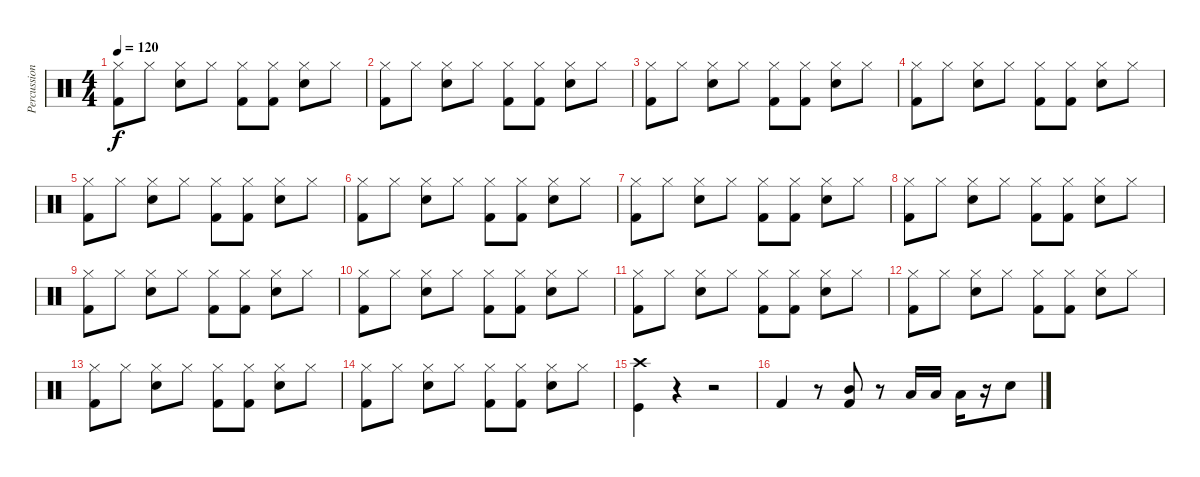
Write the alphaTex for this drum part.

\track ("Percussion" "Percussion") {instrument percussion}
\staff {score}
\articulation defaults
\ts (4 4)
\tempo 120
\clef neutral
\ks c
("Hi-Hat (closed)" "Kick (hit) 2").8{dy f} "Hi-Hat (closed)".8 ("Hi-Hat (closed)" "Electric Snare (hit)").8 "Hi-Hat (closed)".8 ("Hi-Hat (closed)" "Kick (hit) 2").8 ("Hi-Hat (closed)" "Kick (hit) 2").8 ("Hi-Hat (closed)" "Electric Snare (hit)").8 "Hi-Hat (closed)".8 |
("Hi-Hat (closed)" "Kick (hit) 2").8 "Hi-Hat (closed)".8 ("Hi-Hat (closed)" "Electric Snare (hit)").8 "Hi-Hat (closed)".8 ("Hi-Hat (closed)" "Kick (hit) 2").8 ("Hi-Hat (closed)" "Kick (hit) 2").8 ("Hi-Hat (closed)" "Electric Snare (hit)").8 "Hi-Hat (closed)".8 |
("Hi-Hat (closed)" "Kick (hit) 2").8 "Hi-Hat (closed)".8 ("Hi-Hat (closed)" "Electric Snare (hit)").8 "Hi-Hat (closed)".8 ("Hi-Hat (closed)" "Kick (hit) 2").8 ("Hi-Hat (closed)" "Kick (hit) 2").8 ("Hi-Hat (closed)" "Electric Snare (hit)").8 "Hi-Hat (closed)".8 |
("Hi-Hat (closed)" "Kick (hit) 2").8 "Hi-Hat (closed)".8 ("Hi-Hat (closed)" "Electric Snare (hit)").8 "Hi-Hat (closed)".8 ("Hi-Hat (closed)" "Kick (hit) 2").8 ("Hi-Hat (closed)" "Kick (hit) 2").8 ("Hi-Hat (closed)" "Electric Snare (hit)").8 "Hi-Hat (closed)".8 |
("Hi-Hat (closed)" "Kick (hit) 2").8 "Hi-Hat (closed)".8 ("Hi-Hat (closed)" "Electric Snare (hit)").8 "Hi-Hat (closed)".8 ("Hi-Hat (closed)" "Kick (hit) 2").8 ("Hi-Hat (closed)" "Kick (hit) 2").8 ("Hi-Hat (closed)" "Electric Snare (hit)").8 "Hi-Hat (closed)".8 |
("Hi-Hat (closed)" "Kick (hit) 2").8 "Hi-Hat (closed)".8 ("Hi-Hat (closed)" "Electric Snare (hit)").8 "Hi-Hat (closed)".8 ("Hi-Hat (closed)" "Kick (hit) 2").8 ("Hi-Hat (closed)" "Kick (hit) 2").8 ("Hi-Hat (closed)" "Electric Snare (hit)").8 "Hi-Hat (closed)".8 |
("Hi-Hat (closed)" "Kick (hit) 2").8 "Hi-Hat (closed)".8 ("Hi-Hat (closed)" "Electric Snare (hit)").8 "Hi-Hat (closed)".8 ("Hi-Hat (closed)" "Kick (hit) 2").8 ("Hi-Hat (closed)" "Kick (hit) 2").8 ("Hi-Hat (closed)" "Electric Snare (hit)").8 "Hi-Hat (closed)".8 |
("Hi-Hat (closed)" "Kick (hit) 2").8 "Hi-Hat (closed)".8 ("Hi-Hat (closed)" "Electric Snare (hit)").8 "Hi-Hat (closed)".8 ("Hi-Hat (closed)" "Kick (hit) 2").8 ("Hi-Hat (closed)" "Kick (hit) 2").8 ("Hi-Hat (closed)" "Electric Snare (hit)").8 "Hi-Hat (closed)".8 |
("Hi-Hat (closed)" "Kick (hit) 2").8 "Hi-Hat (closed)".8 ("Hi-Hat (closed)" "Electric Snare (hit)").8 "Hi-Hat (closed)".8 ("Hi-Hat (closed)" "Kick (hit) 2").8 ("Hi-Hat (closed)" "Kick (hit) 2").8 ("Hi-Hat (closed)" "Electric Snare (hit)").8 "Hi-Hat (closed)".8 |
("Hi-Hat (closed)" "Kick (hit) 2").8 "Hi-Hat (closed)".8 ("Hi-Hat (closed)" "Electric Snare (hit)").8 "Hi-Hat (closed)".8 ("Hi-Hat (closed)" "Kick (hit) 2").8 ("Hi-Hat (closed)" "Kick (hit) 2").8 ("Hi-Hat (closed)" "Electric Snare (hit)").8 "Hi-Hat (closed)".8 |
("Hi-Hat (closed)" "Kick (hit) 2").8 "Hi-Hat (closed)".8 ("Hi-Hat (closed)" "Electric Snare (hit)").8 "Hi-Hat (closed)".8 ("Hi-Hat (closed)" "Kick (hit) 2").8 ("Hi-Hat (closed)" "Kick (hit) 2").8 ("Hi-Hat (closed)" "Electric Snare (hit)").8 "Hi-Hat (closed)".8 |
("Hi-Hat (closed)" "Kick (hit) 2").8 "Hi-Hat (closed)".8 ("Hi-Hat (closed)" "Electric Snare (hit)").8 "Hi-Hat (closed)".8 ("Hi-Hat (closed)" "Kick (hit) 2").8 ("Hi-Hat (closed)" "Kick (hit) 2").8 ("Hi-Hat (closed)" "Electric Snare (hit)").8 "Hi-Hat (closed)".8 |
("Hi-Hat (closed)" "Kick (hit) 2").8 "Hi-Hat (closed)".8 ("Hi-Hat (closed)" "Electric Snare (hit)").8 "Hi-Hat (closed)".8 ("Hi-Hat (closed)" "Kick (hit) 2").8 ("Hi-Hat (closed)" "Kick (hit) 2").8 ("Hi-Hat (closed)" "Electric Snare (hit)").8 "Hi-Hat (closed)".8 |
("Hi-Hat (closed)" "Kick (hit) 2").8 "Hi-Hat (closed)".8 ("Hi-Hat (closed)" "Electric Snare (hit)").8 "Hi-Hat (closed)".8 ("Hi-Hat (closed)" "Kick (hit) 2").8 ("Hi-Hat (closed)" "Kick (hit) 2").8 ("Hi-Hat (closed)" "Electric Snare (hit)").8 "Hi-Hat (closed)".8 |
("Crash high (hit)" "Kick (hit)").4 r.4 r.2 |
"Kick (hit) 2".4 r.8 ("Mid Tom (hit)" "Kick (hit) 2").8 r.8 "Low Tom (hit)".16 "Low Tom (hit)".16 "Low Tom (hit)".16 r.16 "Electric Snare (hit)".8
